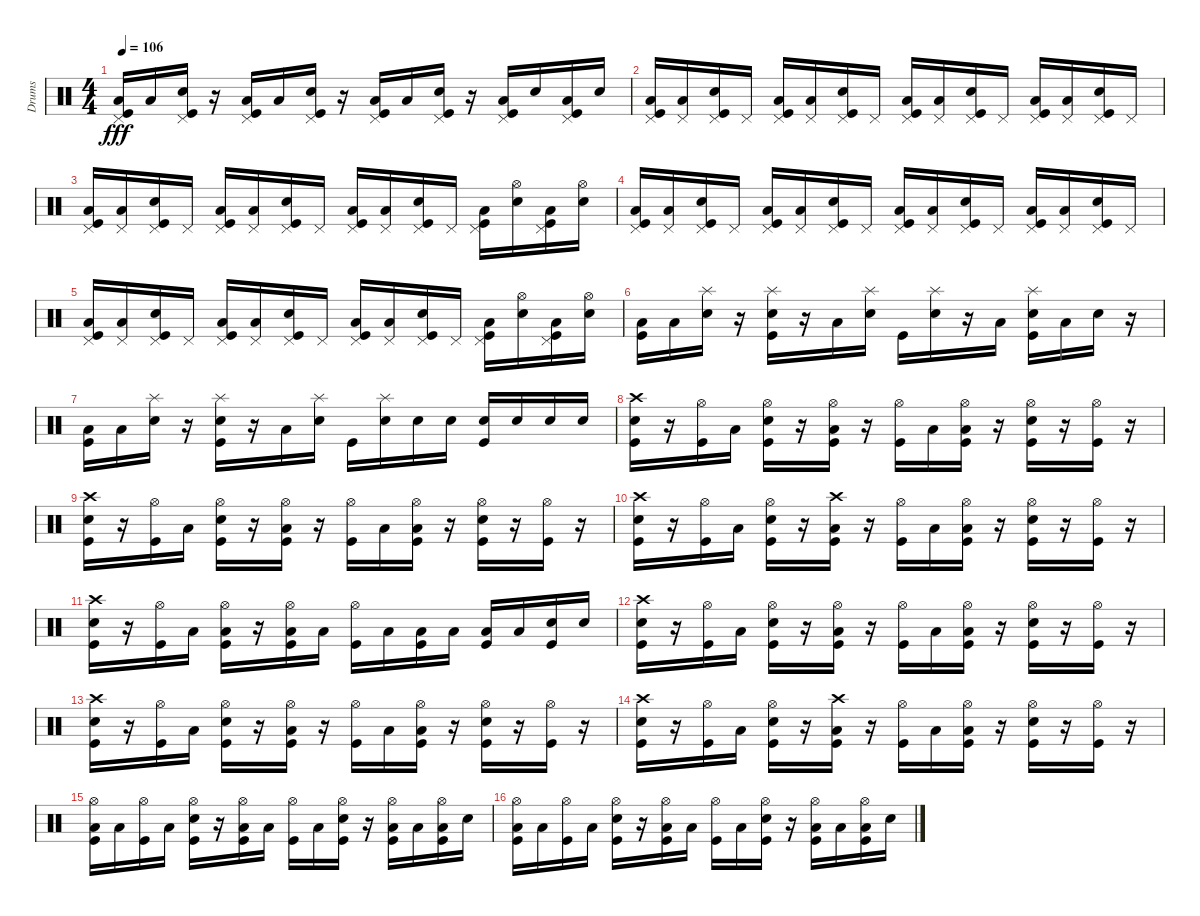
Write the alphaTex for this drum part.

\track ("Drums" "Drums") {instrument percussion}
\staff {score}
\articulation defaults
\ts (4 4)
\tempo 106
\clef neutral
\ks c
("Pedal Hi-Hat (hit)" "Low Floor Tom (hit)" "Kick (hit)").16{dy fff} "Low Floor Tom (hit)".16 ("Pedal Hi-Hat (hit)" "Snare (hit) 2" "Kick (hit)").16 r.16 ("Pedal Hi-Hat (hit)" "Low Floor Tom (hit)" "Kick (hit)").16 "Low Floor Tom (hit)".16 ("Pedal Hi-Hat (hit)" "Snare (hit) 2" "Kick (hit)").16 r.16 ("Pedal Hi-Hat (hit)" "Low Floor Tom (hit)" "Kick (hit)").16 "Low Floor Tom (hit)".16 ("Pedal Hi-Hat (hit)" "Snare (hit) 2" "Kick (hit)").16 r.16 ("Pedal Hi-Hat (hit)" "Low Floor Tom (hit)" "Kick (hit)").16 "Snare (hit) 2".16 ("Pedal Hi-Hat (hit)" "Low Floor Tom (hit)" "Kick (hit)").16 "Snare (hit) 2".16 |
("Pedal Hi-Hat (hit)" "Low Floor Tom (hit)" "Kick (hit)").16 ("Pedal Hi-Hat (hit)" "Low Floor Tom (hit)").16 ("Pedal Hi-Hat (hit)" "Snare (hit) 2" "Kick (hit)").16 "Pedal Hi-Hat (hit)".16 ("Pedal Hi-Hat (hit)" "Low Floor Tom (hit)" "Kick (hit)").16 ("Pedal Hi-Hat (hit)" "Low Floor Tom (hit)").16 ("Pedal Hi-Hat (hit)" "Snare (hit) 2" "Kick (hit)").16 "Pedal Hi-Hat (hit)".16 ("Pedal Hi-Hat (hit)" "Low Floor Tom (hit)" "Kick (hit)").16 ("Pedal Hi-Hat (hit)" "Low Floor Tom (hit)").16 ("Pedal Hi-Hat (hit)" "Snare (hit) 2" "Kick (hit)").16 "Pedal Hi-Hat (hit)".16 ("Pedal Hi-Hat (hit)" "Low Floor Tom (hit)" "Kick (hit)").16 ("Pedal Hi-Hat (hit)" "Low Floor Tom (hit)").16 ("Pedal Hi-Hat (hit)" "Snare (hit) 2" "Kick (hit)").16 "Pedal Hi-Hat (hit)".16 |
("Pedal Hi-Hat (hit)" "Low Floor Tom (hit)" "Kick (hit)").16 ("Pedal Hi-Hat (hit)" "Low Floor Tom (hit)").16 ("Pedal Hi-Hat (hit)" "Snare (hit) 2" "Kick (hit)").16 "Pedal Hi-Hat (hit)".16 ("Pedal Hi-Hat (hit)" "Low Floor Tom (hit)" "Kick (hit)").16 ("Pedal Hi-Hat (hit)" "Low Floor Tom (hit)").16 ("Pedal Hi-Hat (hit)" "Snare (hit) 2" "Kick (hit)").16 "Pedal Hi-Hat (hit)".16 ("Pedal Hi-Hat (hit)" "Low Floor Tom (hit)" "Kick (hit)").16 ("Pedal Hi-Hat (hit)" "Low Floor Tom (hit)").16 ("Pedal Hi-Hat (hit)" "Snare (hit) 2" "Kick (hit)").16 "Pedal Hi-Hat (hit)".16 ("Pedal Hi-Hat (hit)" "Low Floor Tom (hit)" "Kick (hit)").16 ("Hi-Hat (open)" "Snare (hit) 2").16 ("Pedal Hi-Hat (hit)" "Low Floor Tom (hit)" "Kick (hit)").16 ("Hi-Hat (open)" "Snare (hit) 2").16 |
("Pedal Hi-Hat (hit)" "Low Floor Tom (hit)" "Kick (hit)").16 ("Pedal Hi-Hat (hit)" "Low Floor Tom (hit)").16 ("Pedal Hi-Hat (hit)" "Snare (hit) 2" "Kick (hit)").16 "Pedal Hi-Hat (hit)".16 ("Pedal Hi-Hat (hit)" "Low Floor Tom (hit)" "Kick (hit)").16 ("Pedal Hi-Hat (hit)" "Low Floor Tom (hit)").16 ("Pedal Hi-Hat (hit)" "Snare (hit) 2" "Kick (hit)").16 "Pedal Hi-Hat (hit)".16 ("Pedal Hi-Hat (hit)" "Low Floor Tom (hit)" "Kick (hit)").16 ("Pedal Hi-Hat (hit)" "Low Floor Tom (hit)").16 ("Pedal Hi-Hat (hit)" "Snare (hit) 2" "Kick (hit)").16 "Pedal Hi-Hat (hit)".16 ("Pedal Hi-Hat (hit)" "Low Floor Tom (hit)" "Kick (hit)").16 ("Pedal Hi-Hat (hit)" "Low Floor Tom (hit)").16 ("Pedal Hi-Hat (hit)" "Snare (hit) 2" "Kick (hit)").16 "Pedal Hi-Hat (hit)".16 |
("Pedal Hi-Hat (hit)" "Low Floor Tom (hit)" "Kick (hit)").16 ("Pedal Hi-Hat (hit)" "Low Floor Tom (hit)").16 ("Pedal Hi-Hat (hit)" "Snare (hit) 2" "Kick (hit)").16 "Pedal Hi-Hat (hit)".16 ("Pedal Hi-Hat (hit)" "Low Floor Tom (hit)" "Kick (hit)").16 ("Pedal Hi-Hat (hit)" "Low Floor Tom (hit)").16 ("Pedal Hi-Hat (hit)" "Snare (hit) 2" "Kick (hit)").16 "Pedal Hi-Hat (hit)".16 ("Pedal Hi-Hat (hit)" "Low Floor Tom (hit)" "Kick (hit)").16 ("Pedal Hi-Hat (hit)" "Low Floor Tom (hit)").16 ("Pedal Hi-Hat (hit)" "Snare (hit) 2" "Kick (hit)").16 "Pedal Hi-Hat (hit)".16 ("Pedal Hi-Hat (hit)" "Low Floor Tom (hit)" "Kick (hit)").16 ("Hi-Hat (open)" "Snare (hit) 2").16 ("Pedal Hi-Hat (hit)" "Low Floor Tom (hit)" "Kick (hit)").16 ("Hi-Hat (open)" "Snare (hit) 2").16 |
("Low Floor Tom (hit)" "Kick (hit)").16 "Low Floor Tom (hit)".16 ("Splash (hit)" "Snare (hit) 2").16 r.16 ("Splash (hit)" "Snare (hit) 2" "Kick (hit)").16 r.16 "Low Floor Tom (hit)".16 ("Splash (hit)" "Snare (hit) 2").16 "Kick (hit)".16 ("Splash (hit)" "Snare (hit) 2").16 r.16 "Low Floor Tom (hit)".16 ("Splash (hit)" "Snare (hit) 2" "Kick (hit)").16 "Low Floor Tom (hit)".16 "Snare (hit) 2".16 r.16 |
("Low Floor Tom (hit)" "Kick (hit)").16 "Low Floor Tom (hit)".16 ("Splash (hit)" "Snare (hit) 2").16 r.16 ("Splash (hit)" "Snare (hit) 2" "Kick (hit)").16 r.16 "Low Floor Tom (hit)".16 ("Splash (hit)" "Snare (hit) 2").16 "Kick (hit)".16 ("Splash (hit)" "Snare (hit) 2").16 "Snare (hit) 2".16 "Snare (hit) 2".16 ("Snare (hit) 2" "Kick (hit)").16 "Snare (hit) 2".16 "Snare (hit) 2".16 "Snare (hit) 2".16 |
("Crash high (hit)" "Snare (hit) 2" "Kick (hit)").16 r.16 ("Hi-Hat (open)" "Kick (hit)").16 "Low Floor Tom (hit)".16 ("Hi-Hat (open)" "Snare (hit) 2" "Kick (hit)").16 r.16 ("Hi-Hat (open)" "Low Floor Tom (hit)" "Kick (hit)").16 r.16 ("Hi-Hat (open)" "Kick (hit)").16 "Low Floor Tom (hit)".16 ("Hi-Hat (open)" "Low Floor Tom (hit)" "Kick (hit)").16 r.16 ("Hi-Hat (open)" "Snare (hit) 2" "Kick (hit)").16 r.16 ("Hi-Hat (open)" "Kick (hit)").16 r.16 |
("Crash high (hit)" "Snare (hit) 2" "Kick (hit)").16 r.16 ("Hi-Hat (open)" "Kick (hit)").16 "Low Floor Tom (hit)".16 ("Hi-Hat (open)" "Snare (hit) 2" "Kick (hit)").16 r.16 ("Hi-Hat (open)" "Low Floor Tom (hit)" "Kick (hit)").16 r.16 ("Hi-Hat (open)" "Kick (hit)").16 "Low Floor Tom (hit)".16 ("Hi-Hat (open)" "Low Floor Tom (hit)" "Kick (hit)").16 r.16 ("Hi-Hat (open)" "Snare (hit) 2" "Kick (hit)").16 r.16 ("Hi-Hat (open)" "Kick (hit)").16 r.16 |
("Crash high (hit)" "Snare (hit) 2" "Kick (hit)").16 r.16 ("Hi-Hat (open)" "Kick (hit)").16 "Low Floor Tom (hit)".16 ("Hi-Hat (open)" "Snare (hit) 2" "Kick (hit)").16 r.16 ("Crash high (hit)" "Low Floor Tom (hit)" "Kick (hit)").16 r.16 ("Hi-Hat (open)" "Kick (hit)").16 "Low Floor Tom (hit)".16 ("Hi-Hat (open)" "Low Floor Tom (hit)" "Kick (hit)").16 r.16 ("Hi-Hat (open)" "Snare (hit) 2" "Kick (hit)").16 r.16 ("Hi-Hat (open)" "Kick (hit)").16 r.16 |
("Crash high (hit)" "Snare (hit) 2" "Kick (hit)").16 r.16 ("Hi-Hat (open)" "Kick (hit)").16 "Low Floor Tom (hit)".16 ("Hi-Hat (open)" "Low Floor Tom (hit)" "Kick (hit)").16 r.16 ("Hi-Hat (open)" "Low Floor Tom (hit)" "Kick (hit)").16 "Low Floor Tom (hit)".16 ("Hi-Hat (open)" "Kick (hit)").16 "Low Floor Tom (hit)".16 ("Low Floor Tom (hit)" "Kick (hit)").16 "Low Floor Tom (hit)".16 ("Low Floor Tom (hit)" "Kick (hit)").16 "Low Floor Tom (hit)".16 ("Snare (hit) 2" "Kick (hit)").16 "Snare (hit) 2".16 |
("Crash high (hit)" "Snare (hit) 2" "Kick (hit)").16 r.16 ("Hi-Hat (open)" "Kick (hit)").16 "Low Floor Tom (hit)".16 ("Hi-Hat (open)" "Snare (hit) 2" "Kick (hit)").16 r.16 ("Hi-Hat (open)" "Low Floor Tom (hit)" "Kick (hit)").16 r.16 ("Hi-Hat (open)" "Kick (hit)").16 "Low Floor Tom (hit)".16 ("Hi-Hat (open)" "Low Floor Tom (hit)" "Kick (hit)").16 r.16 ("Hi-Hat (open)" "Snare (hit) 2" "Kick (hit)").16 r.16 ("Hi-Hat (open)" "Kick (hit)").16 r.16 |
("Crash high (hit)" "Snare (hit) 2" "Kick (hit)").16 r.16 ("Hi-Hat (open)" "Kick (hit)").16 "Low Floor Tom (hit)".16 ("Hi-Hat (open)" "Snare (hit) 2" "Kick (hit)").16 r.16 ("Hi-Hat (open)" "Low Floor Tom (hit)" "Kick (hit)").16 r.16 ("Hi-Hat (open)" "Kick (hit)").16 "Low Floor Tom (hit)".16 ("Hi-Hat (open)" "Low Floor Tom (hit)" "Kick (hit)").16 r.16 ("Hi-Hat (open)" "Snare (hit) 2" "Kick (hit)").16 r.16 ("Hi-Hat (open)" "Kick (hit)").16 r.16 |
("Crash high (hit)" "Snare (hit) 2" "Kick (hit)").16 r.16 ("Hi-Hat (open)" "Kick (hit)").16 "Low Floor Tom (hit)".16 ("Hi-Hat (open)" "Snare (hit) 2" "Kick (hit)").16 r.16 ("Crash high (hit)" "Low Floor Tom (hit)" "Kick (hit)").16 r.16 ("Hi-Hat (open)" "Kick (hit)").16 "Low Floor Tom (hit)".16 ("Hi-Hat (open)" "Low Floor Tom (hit)" "Kick (hit)").16 r.16 ("Hi-Hat (open)" "Snare (hit) 2" "Kick (hit)").16 r.16 ("Hi-Hat (open)" "Kick (hit)").16 r.16 |
("Hi-Hat (open)" "Low Floor Tom (hit)" "Kick (hit)").16 "Low Floor Tom (hit)".16 ("Hi-Hat (open)" "Kick (hit)").16 "Low Floor Tom (hit)".16 ("Hi-Hat (open)" "Snare (hit) 2" "Kick (hit)").16 r.16 ("Hi-Hat (open)" "Low Floor Tom (hit)" "Kick (hit)").16 "Low Floor Tom (hit)".16 ("Hi-Hat (open)" "Kick (hit)").16 "Low Floor Tom (hit)".16 ("Hi-Hat (open)" "Snare (hit) 2" "Kick (hit)").16 r.16 ("Hi-Hat (open)" "Low Floor Tom (hit)" "Kick (hit)").16 "Low Floor Tom (hit)".16 ("Hi-Hat (open)" "Low Floor Tom (hit)" "Kick (hit)").16 "Snare (hit) 2".16 |
("Hi-Hat (open)" "Low Floor Tom (hit)" "Kick (hit)").16 "Low Floor Tom (hit)".16 ("Hi-Hat (open)" "Kick (hit)").16 "Low Floor Tom (hit)".16 ("Hi-Hat (open)" "Snare (hit) 2" "Kick (hit)").16 r.16 ("Hi-Hat (open)" "Low Floor Tom (hit)" "Kick (hit)").16 "Low Floor Tom (hit)".16 ("Hi-Hat (open)" "Kick (hit)").16 "Low Floor Tom (hit)".16 ("Hi-Hat (open)" "Snare (hit) 2" "Kick (hit)").16 r.16 ("Hi-Hat (open)" "Low Floor Tom (hit)" "Kick (hit)").16 "Low Floor Tom (hit)".16 ("Hi-Hat (open)" "Low Floor Tom (hit)" "Kick (hit)").16 "Snare (hit) 2".16
